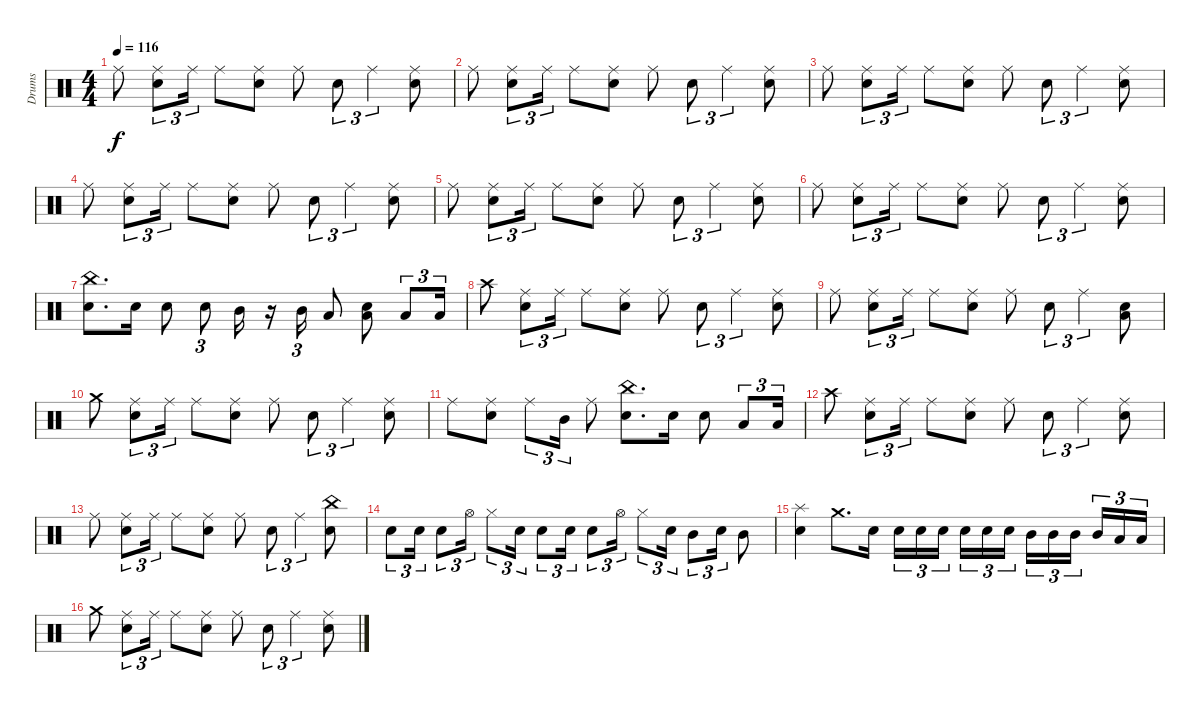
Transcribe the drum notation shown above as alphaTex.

\track ("Drums" "Drums") {instrument percussion}
\staff {score}
\articulation defaults
\ts (4 4)
\tempo 116
\clef neutral
\ks c "Ride (middle)".8{dy f}
("Ride (middle)" "Snare (hit) 2").8{tu (3 2)} "Ride (middle)".16{tu (3 2)} "Ride (middle)".8 ("Ride (middle)" "Snare (hit) 2").8 "Ride (middle)".8 "Snare (hit) 2".8{tu (3 2)} "Ride (middle)".4{tu (3 2)} ("Ride (middle)" "Snare (hit) 2").8 |
"Ride (middle)".8 ("Ride (middle)" "Snare (hit) 2").8{tu (3 2)} "Ride (middle)".16{tu (3 2)} "Ride (middle)".8 ("Ride (middle)" "Snare (hit) 2").8 "Ride (middle)".8 "Snare (hit) 2".8{tu (3 2)} "Ride (middle)".4{tu (3 2)} ("Ride (middle)" "Snare (hit) 2").8 |
"Ride (middle)".8 ("Ride (middle)" "Snare (hit) 2").8{tu (3 2)} "Ride (middle)".16{tu (3 2)} "Ride (middle)".8 ("Ride (middle)" "Snare (hit) 2").8 "Ride (middle)".8 "Snare (hit) 2".8{tu (3 2)} "Ride (middle)".4{tu (3 2)} ("Ride (middle)" "Snare (hit) 2").8 |
"Ride (middle)".8 ("Ride (middle)" "Snare (hit) 2").8{tu (3 2)} "Ride (middle)".16{tu (3 2)} "Ride (middle)".8 ("Ride (middle)" "Snare (hit) 2").8 "Ride (middle)".8 "Snare (hit) 2".8{tu (3 2)} "Ride (middle)".4{tu (3 2)} ("Ride (middle)" "Snare (hit) 2").8 |
"Ride (middle)".8 ("Ride (middle)" "Snare (hit) 2").8{tu (3 2)} "Ride (middle)".16{tu (3 2)} "Ride (middle)".8 ("Ride (middle)" "Snare (hit) 2").8 "Ride (middle)".8 "Snare (hit) 2".8{tu (3 2)} "Ride (middle)".4{tu (3 2)} ("Ride (middle)" "Snare (hit) 2").8 |
"Ride (middle)".8 ("Ride (middle)" "Snare (hit) 2").8{tu (3 2)} "Ride (middle)".16{tu (3 2)} "Ride (middle)".8 ("Ride (middle)" "Snare (hit) 2").8 "Ride (middle)".8 "Snare (hit) 2".8{tu (3 2)} "Ride (middle)".4{tu (3 2)} ("Ride (middle)" "Snare (hit) 2").8 |
("China (hit)" "Snare (hit) 2").8{d} "Snare (hit) 2".16 "Snare (hit) 2".8 "Snare (hit) 2".8{tu (3 2)} "Mid Tom (hit)".16 r.16 "Mid Tom (hit)".16{tu (3 2)} "Low Tom (hit)".8 ("Snare (hit) 2" "Low Tom (hit)").8 "Low Tom (hit)".8{tu (3 2)} "Low Tom (hit)".16{tu (3 2)} |
"Crash high (hit)".8 ("Ride (middle)" "Snare (hit) 2").8{tu (3 2)} "Ride (middle)".16{tu (3 2)} "Ride (middle)".8 ("Ride (middle)" "Snare (hit) 2").8 "Ride (middle)".8 "Snare (hit) 2".8{tu (3 2)} "Ride (middle)".4{tu (3 2)} ("Ride (middle)" "Snare (hit) 2").8 |
"Ride (middle)".8 ("Ride (middle)" "Snare (hit) 2").8{tu (3 2)} "Ride (middle)".16{tu (3 2)} "Ride (middle)".8 ("Ride (middle)" "Snare (hit) 2").8 "Ride (middle)".8 "Snare (hit) 2".8{tu (3 2)} "Ride (middle)".4{tu (3 2)} ("Snare (hit) 2" "Low Tom (hit)").8 |
"Crash medium (hit)".8 ("Ride (middle)" "Snare (hit) 2").8{tu (3 2)} "Ride (middle)".16{tu (3 2)} "Ride (middle)".8 ("Ride (middle)" "Snare (hit) 2").8 "Ride (middle)".8 "Snare (hit) 2".8{tu (3 2)} "Ride (middle)".4{tu (3 2)} ("Ride (middle)" "Snare (hit) 2").8 |
"Ride (middle)".8 ("Ride (middle)" "Snare (hit) 2").8 "Ride (middle)".8{tu (3 2)} "Mid Tom (hit)".16{tu (3 2)} "Ride (middle)".8 ("China (hit)" "Snare (hit) 2").8{d} "Snare (hit) 2".16 "Snare (hit) 2".8 "Low Tom (hit)".8{tu (3 2)} "Low Tom (hit)".16{tu (3 2)} |
"Crash high (hit)".8 ("Ride (middle)" "Snare (hit) 2").8{tu (3 2)} "Ride (middle)".16{tu (3 2)} "Ride (middle)".8 ("Ride (middle)" "Snare (hit) 2").8 "Ride (middle)".8 "Snare (hit) 2".8{tu (3 2)} "Ride (middle)".4{tu (3 2)} ("Ride (middle)" "Snare (hit) 2").8 |
"Ride (middle)".8 ("Ride (middle)" "Snare (hit) 2").8{tu (3 2)} "Ride (middle)".16{tu (3 2)} "Ride (middle)".8 ("Ride (middle)" "Snare (hit) 2").8 "Ride (middle)".8 "Snare (hit) 2".8{tu (3 2)} "Ride (middle)".4{tu (3 2)} ("China (hit)" "Snare (hit) 2").8 |
"Snare (hit) 2".8{tu (3 2)} "Snare (hit) 2".16{tu (3 2)} "Snare (hit) 2".8{tu (3 2)} "Hi-Hat (open)".16{tu (3 2)} "Hi-Hat (closed)".8{tu (3 2)} "Snare (hit) 2".16{tu (3 2)} "Snare (hit) 2".8{tu (3 2)} "Snare (hit) 2".16{tu (3 2)} "Snare (hit) 2".8{tu (3 2)} "Hi-Hat (open)".16{tu (3 2)} "Hi-Hat (closed)".8{tu (3 2)} "Snare (hit) 2".16{tu (3 2)} "Mid Tom (hit)".8{tu (3 2)} "Snare (hit) 2".16{tu (3 2)} "Mid Tom (hit)".8 |
("Splash (hit)" "Snare (hit) 2").4 "Crash medium (hit)".8{d} "Snare (hit) 2".16 "Snare (hit) 2".16{tu (3 2)} "Snare (hit) 2".16{tu (3 2)} "Snare (hit) 2".16{tu (3 2)} "Snare (hit) 2".16{tu (3 2)} "Snare (hit) 2".16{tu (3 2)} "Snare (hit) 2".16{tu (3 2)} "Mid Tom (hit)".16{tu (3 2)} "Mid Tom (hit)".16{tu (3 2)} "Mid Tom (hit)".16{tu (3 2)} "Mid Tom (hit)".16{tu (3 2)} "Low Tom (hit)".16{tu (3 2)} "Low Tom (hit)".16{tu (3 2)} |
"Crash medium (hit)".8 ("Ride (middle)" "Snare (hit) 2").8{tu (3 2)} "Ride (middle)".16{tu (3 2)} "Ride (middle)".8 ("Ride (middle)" "Snare (hit) 2").8 "Ride (middle)".8 "Snare (hit) 2".8{tu (3 2)} "Ride (middle)".4{tu (3 2)} ("Ride (middle)" "Snare (hit) 2").8
